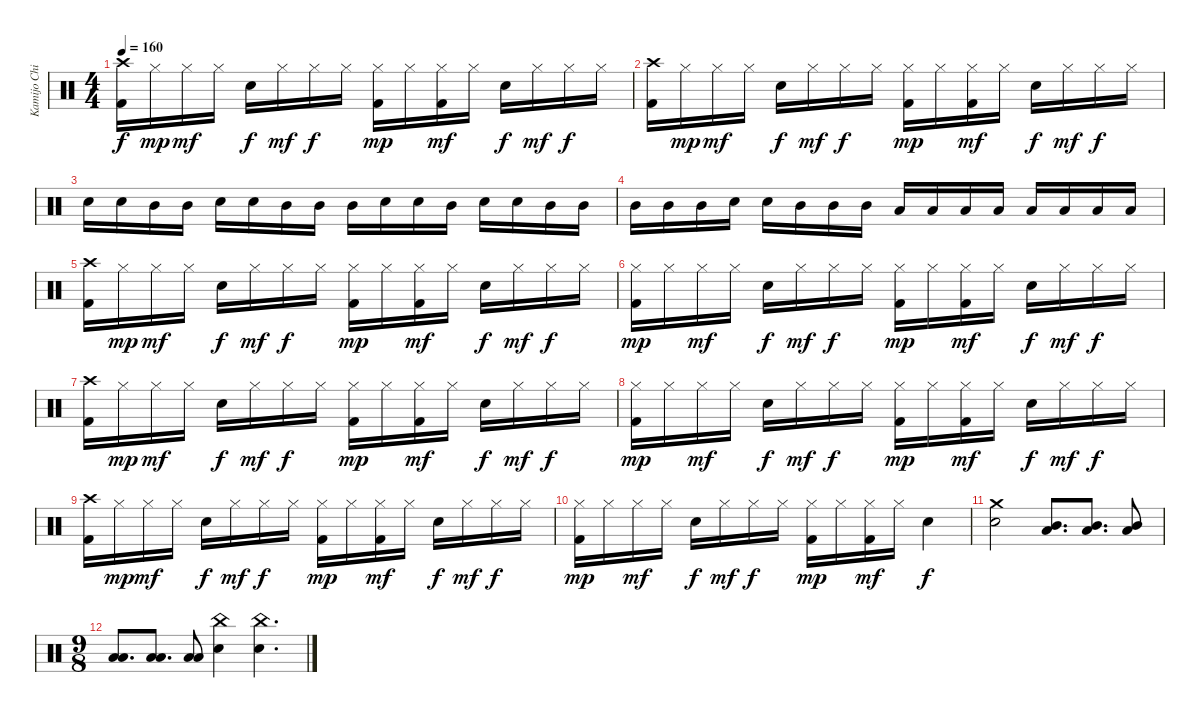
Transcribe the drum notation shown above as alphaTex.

\track ("Kamijo Chihiro" "Kamijo Chi") {instrument percussion}
\staff {score}
\articulation defaults
\ts (4 4)
\tempo 160
\clef neutral
\ks c
("Crash high (hit)" "Kick (hit) 2").16{dy f} "Hi-Hat (closed)".16{dy mp} "Hi-Hat (closed)".16{dy mf} "Hi-Hat (closed)".16 "Snare (hit) 2".16{dy f} "Hi-Hat (closed)".16{dy mf} "Hi-Hat (closed)".16{dy f} "Hi-Hat (closed)".16 ("Hi-Hat (closed)" "Kick (hit) 2").16{dy mp} "Hi-Hat (closed)".16 ("Hi-Hat (closed)" "Kick (hit) 2").16{dy mf} "Hi-Hat (closed)".16 "Snare (hit) 2".16{dy f} "Hi-Hat (closed)".16{dy mf} "Hi-Hat (closed)".16{dy f} "Hi-Hat (closed)".16 |
("Crash high (hit)" "Kick (hit) 2").16 "Hi-Hat (closed)".16{dy mp} "Hi-Hat (closed)".16{dy mf} "Hi-Hat (closed)".16 "Snare (hit) 2".16{dy f} "Hi-Hat (closed)".16{dy mf} "Hi-Hat (closed)".16{dy f} "Hi-Hat (closed)".16 ("Hi-Hat (closed)" "Kick (hit) 2").16{dy mp} "Hi-Hat (closed)".16 ("Hi-Hat (closed)" "Kick (hit) 2").16{dy mf} "Hi-Hat (closed)".16 "Snare (hit) 2".16{dy f} "Hi-Hat (closed)".16{dy mf} "Hi-Hat (closed)".16{dy f} "Hi-Hat (closed)".16 |
"Snare (hit) 2".16 "Snare (hit) 2".16 "Mid Tom (hit)".16 "Mid Tom (hit)".16 "Snare (hit) 2".16 "Snare (hit) 2".16 "Mid Tom (hit)".16 "Mid Tom (hit)".16 "Mid Tom (hit)".16 "Snare (hit) 2".16 "Snare (hit) 2".16 "Mid Tom (hit)".16 "Snare (hit) 2".16 "Snare (hit) 2".16 "Mid Tom (hit)".16 "Mid Tom (hit)".16 |
"Mid Tom (hit)".16 "Mid Tom (hit)".16 "Mid Tom (hit)".16 "Snare (hit) 2".16 "Snare (hit) 2".16 "Mid Tom (hit)".16 "Mid Tom (hit)".16 "Mid Tom (hit)".16 "Low Tom (hit)".16 "Low Tom (hit)".16 "Low Tom (hit)".16 "Low Tom (hit)".16 "Low Floor Tom (hit)".16 "Low Floor Tom (hit)".16 "Low Floor Tom (hit)".16 "Low Floor Tom (hit)".16 |
("Crash high (hit)" "Kick (hit) 2").16 "Hi-Hat (closed)".16{dy mp} "Hi-Hat (closed)".16{dy mf} "Hi-Hat (closed)".16 "Snare (hit) 2".16{dy f} "Hi-Hat (closed)".16{dy mf} "Hi-Hat (closed)".16{dy f} "Hi-Hat (closed)".16 ("Hi-Hat (closed)" "Kick (hit) 2").16{dy mp} "Hi-Hat (closed)".16 ("Hi-Hat (closed)" "Kick (hit) 2").16{dy mf} "Hi-Hat (closed)".16 "Snare (hit) 2".16{dy f} "Hi-Hat (closed)".16{dy mf} "Hi-Hat (closed)".16{dy f} "Hi-Hat (closed)".16 |
("Hi-Hat (closed)" "Kick (hit) 2").16{dy mp} "Hi-Hat (closed)".16 "Hi-Hat (closed)".16{dy mf} "Hi-Hat (closed)".16 "Snare (hit) 2".16{dy f} "Hi-Hat (closed)".16{dy mf} "Hi-Hat (closed)".16{dy f} "Hi-Hat (closed)".16 ("Hi-Hat (closed)" "Kick (hit) 2").16{dy mp} "Hi-Hat (closed)".16 ("Hi-Hat (closed)" "Kick (hit) 2").16{dy mf} "Hi-Hat (closed)".16 "Snare (hit) 2".16{dy f} "Hi-Hat (closed)".16{dy mf} "Hi-Hat (closed)".16{dy f} "Hi-Hat (closed)".16 |
("Crash high (hit)" "Kick (hit) 2").16 "Hi-Hat (closed)".16{dy mp} "Hi-Hat (closed)".16{dy mf} "Hi-Hat (closed)".16 "Snare (hit) 2".16{dy f} "Hi-Hat (closed)".16{dy mf} "Hi-Hat (closed)".16{dy f} "Hi-Hat (closed)".16 ("Hi-Hat (closed)" "Kick (hit) 2").16{dy mp} "Hi-Hat (closed)".16 ("Hi-Hat (closed)" "Kick (hit) 2").16{dy mf} "Hi-Hat (closed)".16 "Snare (hit) 2".16{dy f} "Hi-Hat (closed)".16{dy mf} "Hi-Hat (closed)".16{dy f} "Hi-Hat (closed)".16 |
("Hi-Hat (closed)" "Kick (hit) 2").16{dy mp} "Hi-Hat (closed)".16 "Hi-Hat (closed)".16{dy mf} "Hi-Hat (closed)".16 "Snare (hit) 2".16{dy f} "Hi-Hat (closed)".16{dy mf} "Hi-Hat (closed)".16{dy f} "Hi-Hat (closed)".16 ("Hi-Hat (closed)" "Kick (hit) 2").16{dy mp} "Hi-Hat (closed)".16 ("Hi-Hat (closed)" "Kick (hit) 2").16{dy mf} "Hi-Hat (closed)".16 "Snare (hit) 2".16{dy f} "Hi-Hat (closed)".16{dy mf} "Hi-Hat (closed)".16{dy f} "Hi-Hat (closed)".16 |
("Crash high (hit)" "Kick (hit) 2").16 "Hi-Hat (closed)".16{dy mp} "Hi-Hat (closed)".16{dy mf} "Hi-Hat (closed)".16 "Snare (hit) 2".16{dy f} "Hi-Hat (closed)".16{dy mf} "Hi-Hat (closed)".16{dy f} "Hi-Hat (closed)".16 ("Hi-Hat (closed)" "Kick (hit) 2").16{dy mp} "Hi-Hat (closed)".16 ("Hi-Hat (closed)" "Kick (hit) 2").16{dy mf} "Hi-Hat (closed)".16 "Snare (hit) 2".16{dy f} "Hi-Hat (closed)".16{dy mf} "Hi-Hat (closed)".16{dy f} "Hi-Hat (closed)".16 |
("Hi-Hat (closed)" "Kick (hit) 2").16{dy mp} "Hi-Hat (closed)".16 "Hi-Hat (closed)".16{dy mf} "Hi-Hat (closed)".16 "Snare (hit) 2".16{dy f} "Hi-Hat (closed)".16{dy mf} "Hi-Hat (closed)".16{dy f} "Hi-Hat (closed)".16 ("Hi-Hat (closed)" "Kick (hit) 2").16{dy mp} "Hi-Hat (closed)".16 ("Hi-Hat (closed)" "Kick (hit) 2").16{dy mf} "Hi-Hat (closed)".16 "Snare (hit) 2".4{dy f} |
("Crash medium (hit)" "Snare (hit) 2").2 ("Mid Tom (hit)" "Low Tom (hit)").8{d} ("Mid Tom (hit)" "Low Tom (hit)").8{d} ("Mid Tom (hit)" "Low Tom (hit)").8 |
\ts (9 8)
("Low Tom (hit)" "Low Floor Tom (hit)").8{d} ("Low Tom (hit)" "Low Floor Tom (hit)").8{d} ("Low Tom (hit)" "Low Floor Tom (hit)").8 ("China (hit)" "Snare (hit) 2").4 ("China (hit)" "Snare (hit) 2").4{d}
